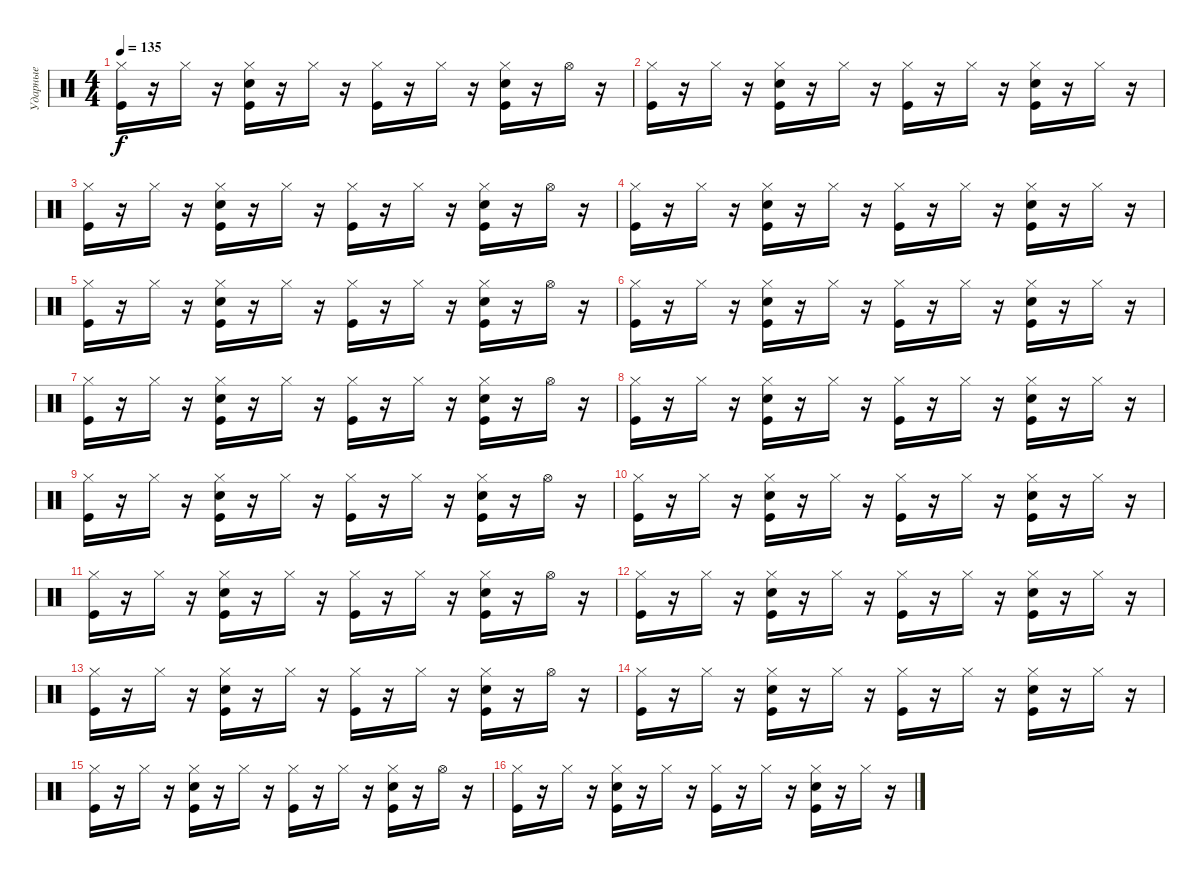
\track ("Ударные" "Ударные") {instrument percussion}
\staff {score}
\articulation defaults
\ts (4 4)
\tempo 135
\clef neutral
\ks c
("Hi-Hat (closed)" "Kick (hit)").16{dy f} r.16 "Hi-Hat (closed)".16 r.16 ("Hi-Hat (closed)" "Kick (hit)" "Snare (hit) 2").16 r.16 "Hi-Hat (closed)".16 r.16 ("Hi-Hat (closed)" "Kick (hit)").16 r.16 "Hi-Hat (closed)".16 r.16 ("Hi-Hat (closed)" "Snare (hit) 2" "Kick (hit)").16 r.16 "Hi-Hat (open)".16 r.16 |
("Hi-Hat (closed)" "Kick (hit)").16 r.16 "Hi-Hat (closed)".16 r.16 ("Hi-Hat (closed)" "Kick (hit)" "Snare (hit) 2").16 r.16 "Hi-Hat (closed)".16 r.16 ("Hi-Hat (closed)" "Kick (hit)").16 r.16 "Hi-Hat (closed)".16 r.16 ("Hi-Hat (closed)" "Snare (hit) 2" "Kick (hit)").16 r.16 "Hi-Hat (closed)".16 r.16 |
("Hi-Hat (closed)" "Kick (hit)").16 r.16 "Hi-Hat (closed)".16 r.16 ("Hi-Hat (closed)" "Kick (hit)" "Snare (hit) 2").16 r.16 "Hi-Hat (closed)".16 r.16 ("Hi-Hat (closed)" "Kick (hit)").16 r.16 "Hi-Hat (closed)".16 r.16 ("Hi-Hat (closed)" "Snare (hit) 2" "Kick (hit)").16 r.16 "Hi-Hat (open)".16 r.16 |
("Hi-Hat (closed)" "Kick (hit)").16 r.16 "Hi-Hat (closed)".16 r.16 ("Hi-Hat (closed)" "Kick (hit)" "Snare (hit) 2").16 r.16 "Hi-Hat (closed)".16 r.16 ("Hi-Hat (closed)" "Kick (hit)").16 r.16 "Hi-Hat (closed)".16 r.16 ("Hi-Hat (closed)" "Snare (hit) 2" "Kick (hit)").16 r.16 "Hi-Hat (closed)".16 r.16 |
("Hi-Hat (closed)" "Kick (hit)").16 r.16 "Hi-Hat (closed)".16 r.16 ("Hi-Hat (closed)" "Kick (hit)" "Snare (hit) 2").16 r.16 "Hi-Hat (closed)".16 r.16 ("Hi-Hat (closed)" "Kick (hit)").16 r.16 "Hi-Hat (closed)".16 r.16 ("Hi-Hat (closed)" "Snare (hit) 2" "Kick (hit)").16 r.16 "Hi-Hat (open)".16 r.16 |
("Hi-Hat (closed)" "Kick (hit)").16 r.16 "Hi-Hat (closed)".16 r.16 ("Hi-Hat (closed)" "Kick (hit)" "Snare (hit) 2").16 r.16 "Hi-Hat (closed)".16 r.16 ("Hi-Hat (closed)" "Kick (hit)").16 r.16 "Hi-Hat (closed)".16 r.16 ("Hi-Hat (closed)" "Snare (hit) 2" "Kick (hit)").16 r.16 "Hi-Hat (closed)".16 r.16 |
("Hi-Hat (closed)" "Kick (hit)").16 r.16 "Hi-Hat (closed)".16 r.16 ("Hi-Hat (closed)" "Kick (hit)" "Snare (hit) 2").16 r.16 "Hi-Hat (closed)".16 r.16 ("Hi-Hat (closed)" "Kick (hit)").16 r.16 "Hi-Hat (closed)".16 r.16 ("Hi-Hat (closed)" "Snare (hit) 2" "Kick (hit)").16 r.16 "Hi-Hat (open)".16 r.16 |
("Hi-Hat (closed)" "Kick (hit)").16 r.16 "Hi-Hat (closed)".16 r.16 ("Hi-Hat (closed)" "Kick (hit)" "Snare (hit) 2").16 r.16 "Hi-Hat (closed)".16 r.16 ("Hi-Hat (closed)" "Kick (hit)").16 r.16 "Hi-Hat (closed)".16 r.16 ("Hi-Hat (closed)" "Snare (hit) 2" "Kick (hit)").16 r.16 "Hi-Hat (closed)".16 r.16 |
("Hi-Hat (closed)" "Kick (hit)").16 r.16 "Hi-Hat (closed)".16 r.16 ("Hi-Hat (closed)" "Kick (hit)" "Snare (hit) 2").16 r.16 "Hi-Hat (closed)".16 r.16 ("Hi-Hat (closed)" "Kick (hit)").16 r.16 "Hi-Hat (closed)".16 r.16 ("Hi-Hat (closed)" "Snare (hit) 2" "Kick (hit)").16 r.16 "Hi-Hat (open)".16 r.16 |
("Hi-Hat (closed)" "Kick (hit)").16 r.16 "Hi-Hat (closed)".16 r.16 ("Hi-Hat (closed)" "Kick (hit)" "Snare (hit) 2").16 r.16 "Hi-Hat (closed)".16 r.16 ("Hi-Hat (closed)" "Kick (hit)").16 r.16 "Hi-Hat (closed)".16 r.16 ("Hi-Hat (closed)" "Snare (hit) 2" "Kick (hit)").16 r.16 "Hi-Hat (closed)".16 r.16 |
("Hi-Hat (closed)" "Kick (hit)").16 r.16 "Hi-Hat (closed)".16 r.16 ("Hi-Hat (closed)" "Kick (hit)" "Snare (hit) 2").16 r.16 "Hi-Hat (closed)".16 r.16 ("Hi-Hat (closed)" "Kick (hit)").16 r.16 "Hi-Hat (closed)".16 r.16 ("Hi-Hat (closed)" "Snare (hit) 2" "Kick (hit)").16 r.16 "Hi-Hat (open)".16 r.16 |
("Hi-Hat (closed)" "Kick (hit)").16 r.16 "Hi-Hat (closed)".16 r.16 ("Hi-Hat (closed)" "Kick (hit)" "Snare (hit) 2").16 r.16 "Hi-Hat (closed)".16 r.16 ("Hi-Hat (closed)" "Kick (hit)").16 r.16 "Hi-Hat (closed)".16 r.16 ("Hi-Hat (closed)" "Snare (hit) 2" "Kick (hit)").16 r.16 "Hi-Hat (closed)".16 r.16 |
("Hi-Hat (closed)" "Kick (hit)").16 r.16 "Hi-Hat (closed)".16 r.16 ("Hi-Hat (closed)" "Kick (hit)" "Snare (hit) 2").16 r.16 "Hi-Hat (closed)".16 r.16 ("Hi-Hat (closed)" "Kick (hit)").16 r.16 "Hi-Hat (closed)".16 r.16 ("Hi-Hat (closed)" "Snare (hit) 2" "Kick (hit)").16 r.16 "Hi-Hat (open)".16 r.16 |
("Hi-Hat (closed)" "Kick (hit)").16 r.16 "Hi-Hat (closed)".16 r.16 ("Hi-Hat (closed)" "Kick (hit)" "Snare (hit) 2").16 r.16 "Hi-Hat (closed)".16 r.16 ("Hi-Hat (closed)" "Kick (hit)").16 r.16 "Hi-Hat (closed)".16 r.16 ("Hi-Hat (closed)" "Snare (hit) 2" "Kick (hit)").16 r.16 "Hi-Hat (closed)".16 r.16 |
("Hi-Hat (closed)" "Kick (hit)").16 r.16 "Hi-Hat (closed)".16 r.16 ("Hi-Hat (closed)" "Kick (hit)" "Snare (hit) 2").16 r.16 "Hi-Hat (closed)".16 r.16 ("Hi-Hat (closed)" "Kick (hit)").16 r.16 "Hi-Hat (closed)".16 r.16 ("Hi-Hat (closed)" "Snare (hit) 2" "Kick (hit)").16 r.16 "Hi-Hat (open)".16 r.16 |
("Hi-Hat (closed)" "Kick (hit)").16 r.16 "Hi-Hat (closed)".16 r.16 ("Hi-Hat (closed)" "Kick (hit)" "Snare (hit) 2").16 r.16 "Hi-Hat (closed)".16 r.16 ("Hi-Hat (closed)" "Kick (hit)").16 r.16 "Hi-Hat (closed)".16 r.16 ("Hi-Hat (closed)" "Snare (hit) 2" "Kick (hit)").16 r.16 "Hi-Hat (closed)".16 r.16
